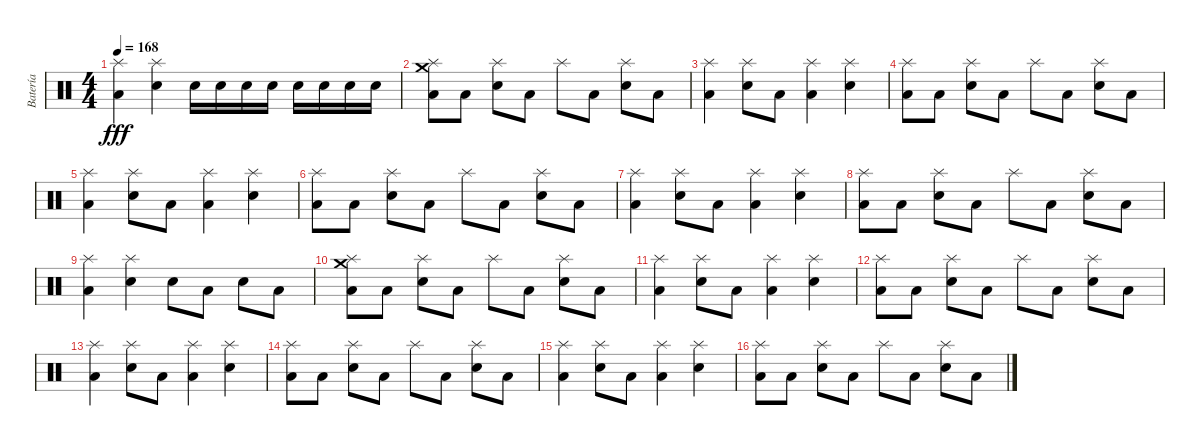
\track ("Batería" "Batería") {instrument percussion}
\staff {score}
\articulation defaults
\ts (4 4)
\tempo 168
\clef neutral
\ks c
("Splash (hit)" "Low Floor Tom (hit)").4{dy fff} ("Splash (hit)" "Electric Snare (hit)").4 "Electric Snare (hit)".16 "Electric Snare (hit)".16 "Electric Snare (hit)".16 "Electric Snare (hit)".16 "Electric Snare (hit)".16 "Electric Snare (hit)".16 "Electric Snare (hit)".16 "Electric Snare (hit)".16 |
("Crash medium (hit)" "Splash (hit)" "Low Floor Tom (hit)").8 "Low Floor Tom (hit)".8 ("Splash (hit)" "Electric Snare (hit)").8 "Low Floor Tom (hit)".8 "Splash (hit)".8 "Low Floor Tom (hit)".8 ("Splash (hit)" "Electric Snare (hit)").8 "Low Floor Tom (hit)".8 |
("Splash (hit)" "Low Floor Tom (hit)").4 ("Splash (hit)" "Electric Snare (hit)").8 "Low Floor Tom (hit)".8 ("Splash (hit)" "Low Floor Tom (hit)").4 ("Splash (hit)" "Electric Snare (hit)").4 |
("Splash (hit)" "Low Floor Tom (hit)").8 "Low Floor Tom (hit)".8 ("Splash (hit)" "Electric Snare (hit)").8 "Low Floor Tom (hit)".8 "Splash (hit)".8 "Low Floor Tom (hit)".8 ("Splash (hit)" "Electric Snare (hit)").8 "Low Floor Tom (hit)".8 |
("Splash (hit)" "Low Floor Tom (hit)").4 ("Splash (hit)" "Electric Snare (hit)").8 "Low Floor Tom (hit)".8 ("Splash (hit)" "Low Floor Tom (hit)").4 ("Splash (hit)" "Electric Snare (hit)").4 |
("Splash (hit)" "Low Floor Tom (hit)").8 "Low Floor Tom (hit)".8 ("Splash (hit)" "Electric Snare (hit)").8 "Low Floor Tom (hit)".8 "Splash (hit)".8 "Low Floor Tom (hit)".8 ("Splash (hit)" "Electric Snare (hit)").8 "Low Floor Tom (hit)".8 |
("Splash (hit)" "Low Floor Tom (hit)").4 ("Splash (hit)" "Electric Snare (hit)").8 "Low Floor Tom (hit)".8 ("Splash (hit)" "Low Floor Tom (hit)").4 ("Splash (hit)" "Electric Snare (hit)").4 |
("Splash (hit)" "Low Floor Tom (hit)").8 "Low Floor Tom (hit)".8 ("Splash (hit)" "Electric Snare (hit)").8 "Low Floor Tom (hit)".8 "Splash (hit)".8 "Low Floor Tom (hit)".8 ("Splash (hit)" "Electric Snare (hit)").8 "Low Floor Tom (hit)".8 |
("Splash (hit)" "Low Floor Tom (hit)").4 ("Splash (hit)" "Electric Snare (hit)").4 "Snare (hit) 2".8 "Low Floor Tom (hit)".8 "Snare (hit) 2".8 "Low Floor Tom (hit)".8 |
("Crash medium (hit)" "Splash (hit)" "Low Floor Tom (hit)").8 "Low Floor Tom (hit)".8 ("Splash (hit)" "Electric Snare (hit)").8 "Low Floor Tom (hit)".8 "Splash (hit)".8 "Low Floor Tom (hit)".8 ("Splash (hit)" "Electric Snare (hit)").8 "Low Floor Tom (hit)".8 |
("Splash (hit)" "Low Floor Tom (hit)").4 ("Splash (hit)" "Electric Snare (hit)").8 "Low Floor Tom (hit)".8 ("Splash (hit)" "Low Floor Tom (hit)").4 ("Splash (hit)" "Electric Snare (hit)").4 |
("Splash (hit)" "Low Floor Tom (hit)").8 "Low Floor Tom (hit)".8 ("Splash (hit)" "Electric Snare (hit)").8 "Low Floor Tom (hit)".8 "Splash (hit)".8 "Low Floor Tom (hit)".8 ("Splash (hit)" "Electric Snare (hit)").8 "Low Floor Tom (hit)".8 |
("Splash (hit)" "Low Floor Tom (hit)").4 ("Splash (hit)" "Electric Snare (hit)").8 "Low Floor Tom (hit)".8 ("Splash (hit)" "Low Floor Tom (hit)").4 ("Splash (hit)" "Electric Snare (hit)").4 |
("Splash (hit)" "Low Floor Tom (hit)").8 "Low Floor Tom (hit)".8 ("Splash (hit)" "Electric Snare (hit)").8 "Low Floor Tom (hit)".8 "Splash (hit)".8 "Low Floor Tom (hit)".8 ("Splash (hit)" "Electric Snare (hit)").8 "Low Floor Tom (hit)".8 |
("Splash (hit)" "Low Floor Tom (hit)").4 ("Splash (hit)" "Electric Snare (hit)").8 "Low Floor Tom (hit)".8 ("Splash (hit)" "Low Floor Tom (hit)").4 ("Splash (hit)" "Electric Snare (hit)").4 |
("Splash (hit)" "Low Floor Tom (hit)").8 "Low Floor Tom (hit)".8 ("Splash (hit)" "Electric Snare (hit)").8 "Low Floor Tom (hit)".8 "Splash (hit)".8 "Low Floor Tom (hit)".8 ("Splash (hit)" "Electric Snare (hit)").8 "Low Floor Tom (hit)".8
